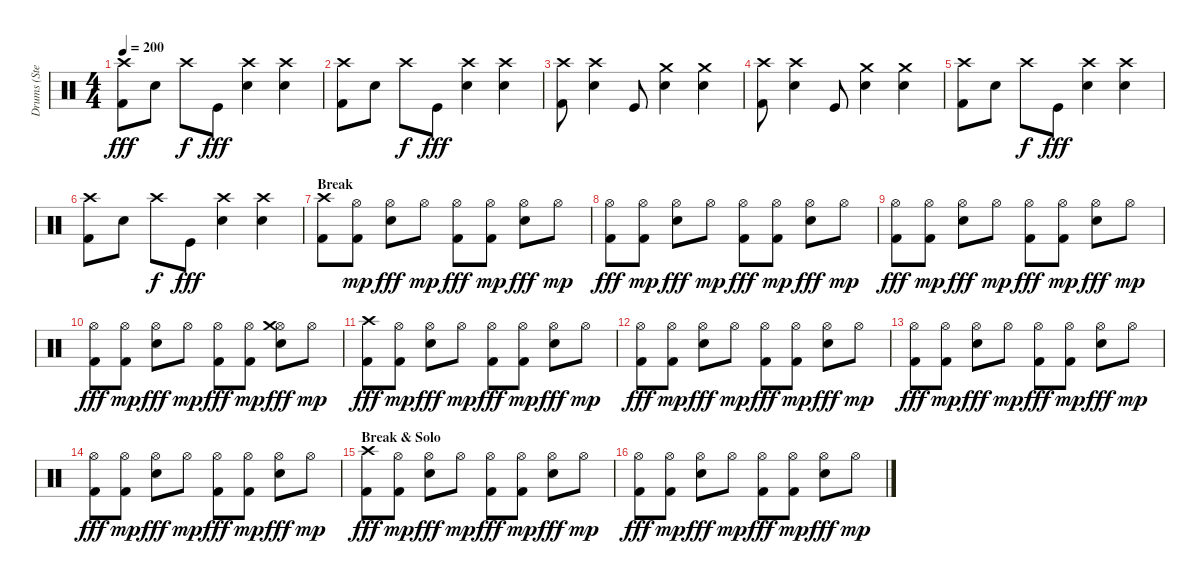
\track ("Drums (Stevo32)" "Drums (Ste") {instrument percussion}
\staff {score}
\articulation defaults
\ts (4 4)
\tempo 200
\clef neutral
\ks c
("Kick (hit) 2" "Crash high (hit)").8{dy fff} "Electric Snare (hit)".8 "Crash high (hit)".8{dy f} "Kick (hit)".8{dy fff} ("Electric Snare (hit)" "Crash high (hit)").4 ("Electric Snare (hit)" "Crash high (hit)").4 |
("Kick (hit) 2" "Crash high (hit)").8 "Electric Snare (hit)".8 "Crash high (hit)".8{dy f} "Kick (hit)".8{dy fff} ("Electric Snare (hit)" "Crash high (hit)").4 ("Electric Snare (hit)" "Crash high (hit)").4 |
("Kick (hit) 2" "Crash high (hit)").8 ("Electric Snare (hit)" "Crash high (hit)").4 "Kick (hit)".8 ("Electric Snare (hit)" "Crash medium (hit)").4 ("Electric Snare (hit)" "Crash medium (hit)").4 |
("Kick (hit) 2" "Crash high (hit)").8 ("Electric Snare (hit)" "Crash high (hit)").4 "Kick (hit)".8 ("Electric Snare (hit)" "Crash medium (hit)").4 ("Electric Snare (hit)" "Crash medium (hit)").4 |
("Kick (hit) 2" "Crash high (hit)").8 "Electric Snare (hit)".8 "Crash high (hit)".8{dy f} "Kick (hit)".8{dy fff} ("Electric Snare (hit)" "Crash high (hit)").4 ("Electric Snare (hit)" "Crash high (hit)").4 |
("Kick (hit) 2" "Crash high (hit)").8 "Electric Snare (hit)".8 "Crash high (hit)".8{dy f} "Kick (hit)".8{dy fff} ("Electric Snare (hit)" "Crash high (hit)").4 ("Electric Snare (hit)" "Crash high (hit)").4 |
\section ("" "Break")
("Kick (hit) 2" "Crash high (hit)").8 ("Kick (hit) 2" "Hi-Hat (open)").8{dy mp} ("Electric Snare (hit)" "Hi-Hat (open)").8{dy fff} "Hi-Hat (open)".8{dy mp} ("Kick (hit) 2" "Hi-Hat (open)").8{dy fff} ("Kick (hit) 2" "Hi-Hat (open)").8{dy mp} ("Electric Snare (hit)" "Hi-Hat (open)").8{dy fff} "Hi-Hat (open)".8{dy mp} |
("Kick (hit) 2" "Hi-Hat (open)").8{dy fff} ("Kick (hit) 2" "Hi-Hat (open)").8{dy mp} ("Electric Snare (hit)" "Hi-Hat (open)").8{dy fff} "Hi-Hat (open)".8{dy mp} ("Kick (hit) 2" "Hi-Hat (open)").8{dy fff} ("Kick (hit) 2" "Hi-Hat (open)").8{dy mp} ("Electric Snare (hit)" "Hi-Hat (open)").8{dy fff} "Hi-Hat (open)".8{dy mp} |
("Kick (hit) 2" "Hi-Hat (open)").8{dy fff} ("Kick (hit) 2" "Hi-Hat (open)").8{dy mp} ("Electric Snare (hit)" "Hi-Hat (open)").8{dy fff} "Hi-Hat (open)".8{dy mp} ("Kick (hit) 2" "Hi-Hat (open)").8{dy fff} ("Kick (hit) 2" "Hi-Hat (open)").8{dy mp} ("Electric Snare (hit)" "Hi-Hat (open)").8{dy fff} "Hi-Hat (open)".8{dy mp} |
("Kick (hit) 2" "Hi-Hat (open)").8{dy fff} ("Kick (hit) 2" "Hi-Hat (open)").8{dy mp} ("Electric Snare (hit)" "Hi-Hat (open)").8{dy fff} "Hi-Hat (open)".8{dy mp} ("Kick (hit) 2" "Hi-Hat (open)").8{dy fff} ("Kick (hit) 2" "Hi-Hat (open)").8{dy mp} ("Electric Snare (hit)" "Hi-Hat (open)" "Crash medium (hit)").8{dy fff} "Hi-Hat (open)".8{dy mp} |
("Kick (hit) 2" "Crash high (hit)").8{dy fff} ("Kick (hit) 2" "Hi-Hat (open)").8{dy mp} ("Electric Snare (hit)" "Hi-Hat (open)").8{dy fff} "Hi-Hat (open)".8{dy mp} ("Kick (hit) 2" "Hi-Hat (open)").8{dy fff} ("Kick (hit) 2" "Hi-Hat (open)").8{dy mp} ("Electric Snare (hit)" "Hi-Hat (open)").8{dy fff} "Hi-Hat (open)".8{dy mp} |
("Kick (hit) 2" "Hi-Hat (open)").8{dy fff} ("Kick (hit) 2" "Hi-Hat (open)").8{dy mp} ("Electric Snare (hit)" "Hi-Hat (open)").8{dy fff} "Hi-Hat (open)".8{dy mp} ("Kick (hit) 2" "Hi-Hat (open)").8{dy fff} ("Kick (hit) 2" "Hi-Hat (open)").8{dy mp} ("Electric Snare (hit)" "Hi-Hat (open)").8{dy fff} "Hi-Hat (open)".8{dy mp} |
("Kick (hit) 2" "Hi-Hat (open)").8{dy fff} ("Kick (hit) 2" "Hi-Hat (open)").8{dy mp} ("Electric Snare (hit)" "Hi-Hat (open)").8{dy fff} "Hi-Hat (open)".8{dy mp} ("Kick (hit) 2" "Hi-Hat (open)").8{dy fff} ("Kick (hit) 2" "Hi-Hat (open)").8{dy mp} ("Electric Snare (hit)" "Hi-Hat (open)").8{dy fff} "Hi-Hat (open)".8{dy mp} |
("Kick (hit) 2" "Hi-Hat (open)").8{dy fff} ("Kick (hit) 2" "Hi-Hat (open)").8{dy mp} ("Electric Snare (hit)" "Hi-Hat (open)").8{dy fff} "Hi-Hat (open)".8{dy mp} ("Kick (hit) 2" "Hi-Hat (open)").8{dy fff} ("Kick (hit) 2" "Hi-Hat (open)").8{dy mp} ("Electric Snare (hit)" "Hi-Hat (open)").8{dy fff} "Hi-Hat (open)".8{dy mp} |
\section ("" "Break & Solo")
("Kick (hit) 2" "Crash high (hit)").8{dy fff} ("Kick (hit) 2" "Hi-Hat (open)").8{dy mp} ("Electric Snare (hit)" "Hi-Hat (open)").8{dy fff} "Hi-Hat (open)".8{dy mp} ("Kick (hit) 2" "Hi-Hat (open)").8{dy fff} ("Kick (hit) 2" "Hi-Hat (open)").8{dy mp} ("Electric Snare (hit)" "Hi-Hat (open)").8{dy fff} "Hi-Hat (open)".8{dy mp} |
("Kick (hit) 2" "Hi-Hat (open)").8{dy fff} ("Kick (hit) 2" "Hi-Hat (open)").8{dy mp} ("Electric Snare (hit)" "Hi-Hat (open)").8{dy fff} "Hi-Hat (open)".8{dy mp} ("Kick (hit) 2" "Hi-Hat (open)").8{dy fff} ("Kick (hit) 2" "Hi-Hat (open)").8{dy mp} ("Electric Snare (hit)" "Hi-Hat (open)").8{dy fff} "Hi-Hat (open)".8{dy mp}
